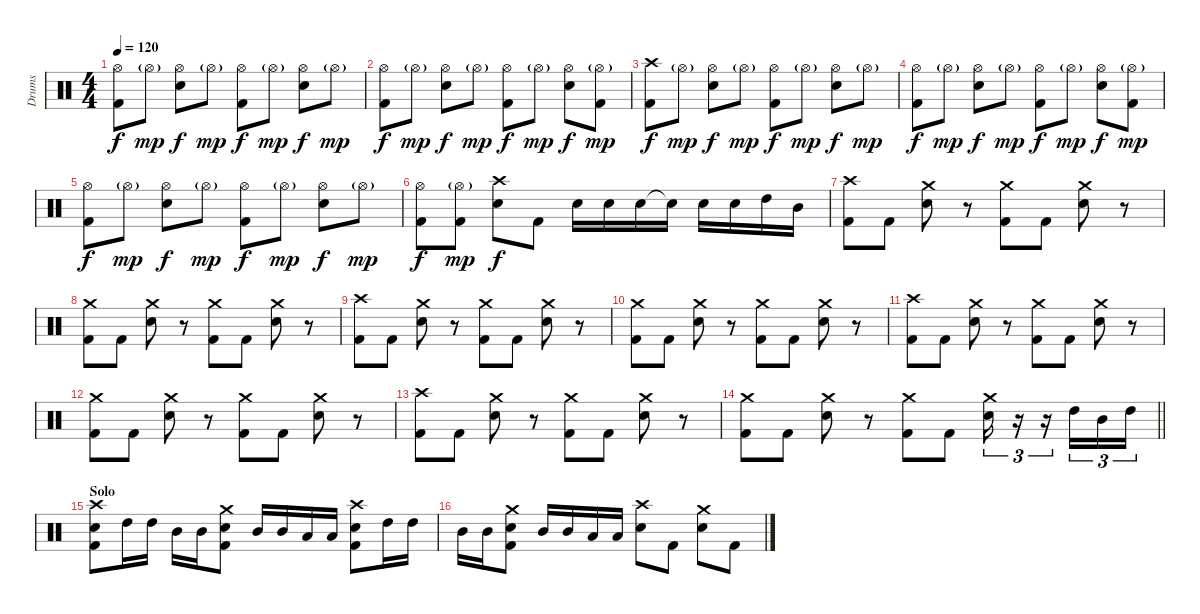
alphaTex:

\track ("Drums" "Drums") {instrument percussion}
\staff {score}
\articulation defaults
\ts (4 4)
\tempo 120
\clef neutral
\ks c
("Hi-Hat (open)" "Kick (hit) 2").8{dy f} "Hi-Hat (open)"{g}.8{dy mp} ("Hi-Hat (open)" "Electric Snare (hit)").8{dy f} "Hi-Hat (open)"{g}.8{dy mp} ("Hi-Hat (open)" "Kick (hit) 2").8{dy f} "Hi-Hat (open)"{g}.8{dy mp} ("Hi-Hat (open)" "Electric Snare (hit)").8{dy f} "Hi-Hat (open)"{g}.8{dy mp} |
("Hi-Hat (open)" "Kick (hit) 2").8{dy f} "Hi-Hat (open)"{g}.8{dy mp} ("Hi-Hat (open)" "Electric Snare (hit)").8{dy f} "Hi-Hat (open)"{g}.8{dy mp} ("Hi-Hat (open)" "Kick (hit) 2").8{dy f} "Hi-Hat (open)"{g}.8{dy mp} ("Hi-Hat (open)" "Electric Snare (hit)").8{dy f} ("Hi-Hat (open)"{g} "Kick (hit) 2").8{dy mp} |
("Crash high (hit)" "Kick (hit) 2").8{dy f} "Hi-Hat (open)"{g}.8{dy mp} ("Hi-Hat (open)" "Electric Snare (hit)").8{dy f} "Hi-Hat (open)"{g}.8{dy mp} ("Hi-Hat (open)" "Kick (hit) 2").8{dy f} "Hi-Hat (open)"{g}.8{dy mp} ("Hi-Hat (open)" "Electric Snare (hit)").8{dy f} "Hi-Hat (open)"{g}.8{dy mp} |
("Hi-Hat (open)" "Kick (hit) 2").8{dy f} "Hi-Hat (open)"{g}.8{dy mp} ("Hi-Hat (open)" "Electric Snare (hit)").8{dy f} "Hi-Hat (open)"{g}.8{dy mp} ("Hi-Hat (open)" "Kick (hit) 2").8{dy f} "Hi-Hat (open)"{g}.8{dy mp} ("Hi-Hat (open)" "Electric Snare (hit)").8{dy f} ("Hi-Hat (open)"{g} "Kick (hit) 2").8{dy mp} |
("Hi-Hat (open)" "Kick (hit) 2").8{dy f} "Hi-Hat (open)"{g}.8{dy mp} ("Hi-Hat (open)" "Electric Snare (hit)").8{dy f} "Hi-Hat (open)"{g}.8{dy mp} ("Hi-Hat (open)" "Kick (hit) 2").8{dy f} "Hi-Hat (open)"{g}.8{dy mp} ("Hi-Hat (open)" "Electric Snare (hit)").8{dy f} "Hi-Hat (open)"{g}.8{dy mp} |
("Hi-Hat (open)" "Kick (hit) 2").8{dy f} ("Hi-Hat (open)"{g} "Kick (hit) 2").8{dy mp} ("Crash high (hit)" "Electric Snare (hit)").8{dy f} "Kick (hit) 2".8 "Electric Snare (hit)".16 "Electric Snare (hit)".16 "Electric Snare (hit)".16 "Snare (hit)"{t}.16 "Electric Snare (hit)".16 "Electric Snare (hit)".16 "High Tom (hit)".16 "Mid Tom (hit)".16 |
("Crash high (hit)" "Kick (hit) 2").8 "Kick (hit) 2".8 ("Crash medium (hit)" "Electric Snare (hit)").8 r.8 ("Crash medium (hit)" "Kick (hit) 2").8 "Kick (hit) 2".8 ("Crash medium (hit)" "Electric Snare (hit)").8 r.8 |
("Crash medium (hit)" "Kick (hit) 2").8 "Kick (hit) 2".8 ("Crash medium (hit)" "Electric Snare (hit)").8 r.8 ("Crash medium (hit)" "Kick (hit) 2").8 "Kick (hit) 2".8 ("Crash medium (hit)" "Electric Snare (hit)").8 r.8 |
("Crash high (hit)" "Kick (hit) 2").8 "Kick (hit) 2".8 ("Crash medium (hit)" "Electric Snare (hit)").8 r.8 ("Crash medium (hit)" "Kick (hit) 2").8 "Kick (hit) 2".8 ("Crash medium (hit)" "Electric Snare (hit)").8 r.8 |
("Crash medium (hit)" "Kick (hit) 2").8 "Kick (hit) 2".8 ("Crash medium (hit)" "Electric Snare (hit)").8 r.8 ("Crash medium (hit)" "Kick (hit) 2").8 "Kick (hit) 2".8 ("Crash medium (hit)" "Electric Snare (hit)").8 r.8 |
("Crash high (hit)" "Kick (hit) 2").8 "Kick (hit) 2".8 ("Crash medium (hit)" "Electric Snare (hit)").8 r.8 ("Crash medium (hit)" "Kick (hit) 2").8 "Kick (hit) 2".8 ("Crash medium (hit)" "Electric Snare (hit)").8 r.8 |
("Crash medium (hit)" "Kick (hit) 2").8 "Kick (hit) 2".8 ("Crash medium (hit)" "Electric Snare (hit)").8 r.8 ("Crash medium (hit)" "Kick (hit) 2").8 "Kick (hit) 2".8 ("Crash medium (hit)" "Electric Snare (hit)").8 r.8 |
("Crash high (hit)" "Kick (hit) 2").8 "Kick (hit) 2".8 ("Crash medium (hit)" "Electric Snare (hit)").8 r.8 ("Crash medium (hit)" "Kick (hit) 2").8 "Kick (hit) 2".8 ("Crash medium (hit)" "Electric Snare (hit)").8 r.8 |
\barLineRight lightlight
("Crash medium (hit)" "Kick (hit) 2").8 "Kick (hit) 2".8 ("Crash medium (hit)" "Electric Snare (hit)").8 r.8 ("Crash medium (hit)" "Kick (hit) 2").8 "Kick (hit) 2".8 ("Crash medium (hit)" "Electric Snare (hit)").16{tu (3 2)} r.16{tu (3 2)} r.16{tu (3 2)} "High Tom (hit)".16{tu (3 2)} "Mid Tom (hit)".16{tu (3 2)} "High Tom (hit)".16{tu (3 2)} |
\section ("" "Solo")
("Crash high (hit)" "Electric Snare (hit)" "Kick (hit) 2").8 "High Tom (hit)".16 "High Tom (hit)".16 "Mid Tom (hit)".16 "Mid Tom (hit)".16 ("Crash medium (hit)" "Electric Snare (hit)" "Kick (hit) 2").8 "Mid Tom (hit)".16 "Mid Tom (hit)".16 "Low Tom (hit)".16 "Low Tom (hit)".16 ("Crash high (hit)" "Kick (hit) 2" "Electric Snare (hit)").8 "High Tom (hit)".16 "High Tom (hit)".16 |
"Mid Tom (hit)".16 "Mid Tom (hit)".16 ("Crash medium (hit)" "Electric Snare (hit)" "Kick (hit) 2").8 "Mid Tom (hit)".16 "Mid Tom (hit)".16 "Low Tom (hit)".16 "Low Tom (hit)".16 ("Crash high (hit)" "Electric Snare (hit)").8 "Kick (hit) 2".8 ("Crash medium (hit)" "Electric Snare (hit)").8 "Kick (hit) 2".8
